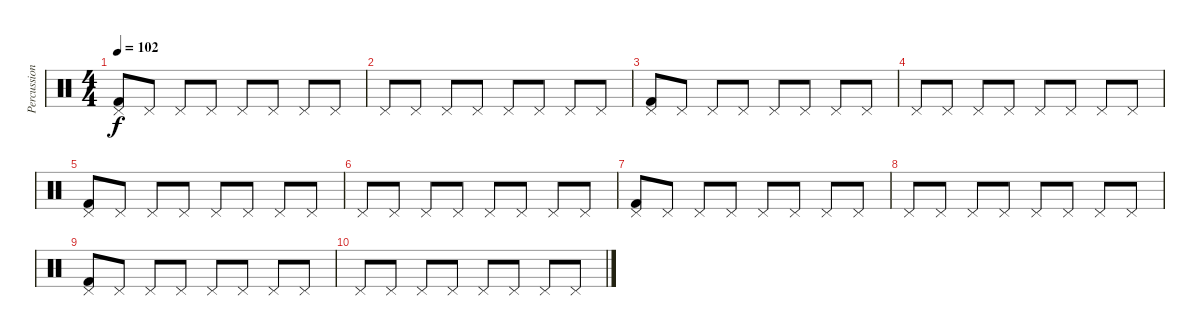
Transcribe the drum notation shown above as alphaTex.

\track ("Percussion" "Percussion") {instrument percussion}
\staff {score}
\articulation defaults
\ts (4 4)
\tempo 102
\clef neutral
\ks c
("Pedal Hi-Hat (hit)" "Kick (hit) 2").8{dy f} "Pedal Hi-Hat (hit)".8 "Pedal Hi-Hat (hit)".8 "Pedal Hi-Hat (hit)".8 "Pedal Hi-Hat (hit)".8 "Pedal Hi-Hat (hit)".8 "Pedal Hi-Hat (hit)".8 "Pedal Hi-Hat (hit)".8 |
"Pedal Hi-Hat (hit)".8 "Pedal Hi-Hat (hit)".8 "Pedal Hi-Hat (hit)".8 "Pedal Hi-Hat (hit)".8 "Pedal Hi-Hat (hit)".8 "Pedal Hi-Hat (hit)".8 "Pedal Hi-Hat (hit)".8 "Pedal Hi-Hat (hit)".8 |
("Pedal Hi-Hat (hit)" "Kick (hit) 2").8 "Pedal Hi-Hat (hit)".8 "Pedal Hi-Hat (hit)".8 "Pedal Hi-Hat (hit)".8 "Pedal Hi-Hat (hit)".8 "Pedal Hi-Hat (hit)".8 "Pedal Hi-Hat (hit)".8 "Pedal Hi-Hat (hit)".8 |
"Pedal Hi-Hat (hit)".8 "Pedal Hi-Hat (hit)".8 "Pedal Hi-Hat (hit)".8 "Pedal Hi-Hat (hit)".8 "Pedal Hi-Hat (hit)".8 "Pedal Hi-Hat (hit)".8 "Pedal Hi-Hat (hit)".8 "Pedal Hi-Hat (hit)".8 |
("Pedal Hi-Hat (hit)" "Kick (hit) 2").8 "Pedal Hi-Hat (hit)".8 "Pedal Hi-Hat (hit)".8 "Pedal Hi-Hat (hit)".8 "Pedal Hi-Hat (hit)".8 "Pedal Hi-Hat (hit)".8 "Pedal Hi-Hat (hit)".8 "Pedal Hi-Hat (hit)".8 |
"Pedal Hi-Hat (hit)".8 "Pedal Hi-Hat (hit)".8 "Pedal Hi-Hat (hit)".8 "Pedal Hi-Hat (hit)".8 "Pedal Hi-Hat (hit)".8 "Pedal Hi-Hat (hit)".8 "Pedal Hi-Hat (hit)".8 "Pedal Hi-Hat (hit)".8 |
("Pedal Hi-Hat (hit)" "Kick (hit) 2").8 "Pedal Hi-Hat (hit)".8 "Pedal Hi-Hat (hit)".8 "Pedal Hi-Hat (hit)".8 "Pedal Hi-Hat (hit)".8 "Pedal Hi-Hat (hit)".8 "Pedal Hi-Hat (hit)".8 "Pedal Hi-Hat (hit)".8 |
"Pedal Hi-Hat (hit)".8 "Pedal Hi-Hat (hit)".8 "Pedal Hi-Hat (hit)".8 "Pedal Hi-Hat (hit)".8 "Pedal Hi-Hat (hit)".8 "Pedal Hi-Hat (hit)".8 "Pedal Hi-Hat (hit)".8 "Pedal Hi-Hat (hit)".8 |
("Pedal Hi-Hat (hit)" "Kick (hit) 2").8 "Pedal Hi-Hat (hit)".8 "Pedal Hi-Hat (hit)".8 "Pedal Hi-Hat (hit)".8 "Pedal Hi-Hat (hit)".8 "Pedal Hi-Hat (hit)".8 "Pedal Hi-Hat (hit)".8 "Pedal Hi-Hat (hit)".8 |
"Pedal Hi-Hat (hit)".8 "Pedal Hi-Hat (hit)".8 "Pedal Hi-Hat (hit)".8 "Pedal Hi-Hat (hit)".8 "Pedal Hi-Hat (hit)".8 "Pedal Hi-Hat (hit)".8 "Pedal Hi-Hat (hit)".8 "Pedal Hi-Hat (hit)".8
